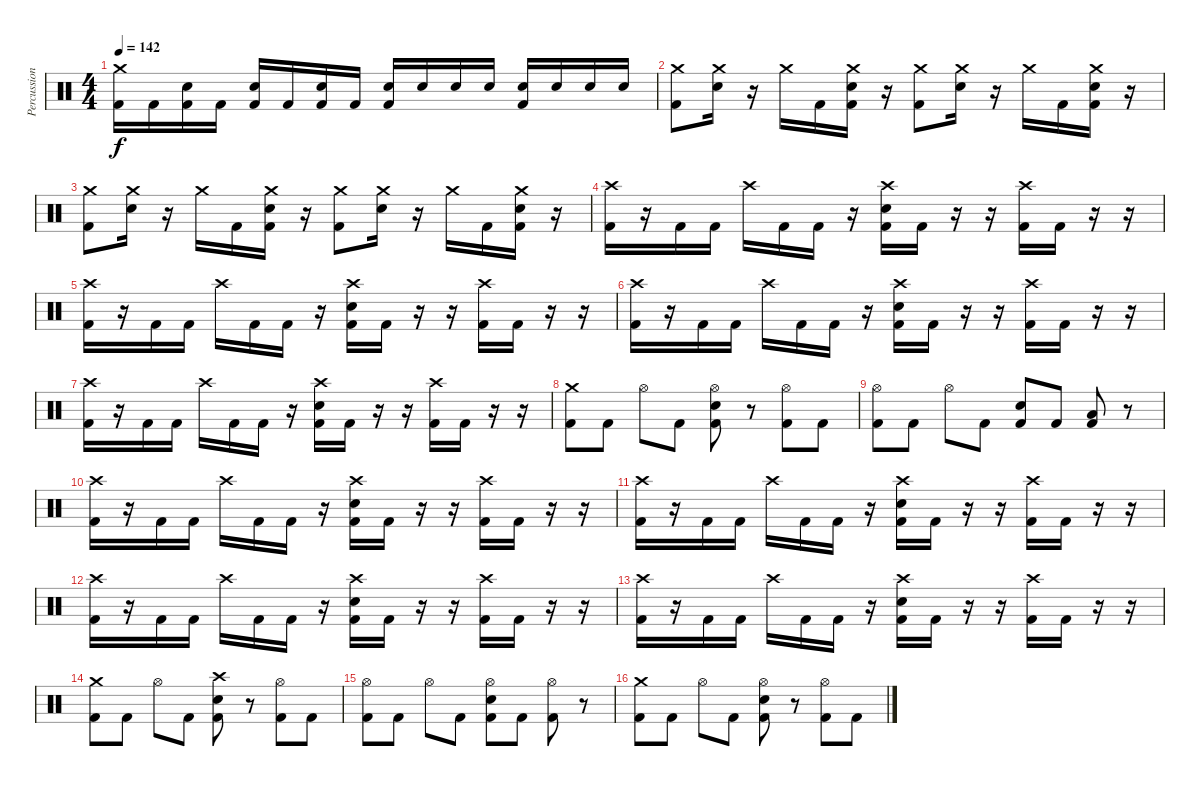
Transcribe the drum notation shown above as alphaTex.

\track ("Percussion" "Percussion") {instrument percussion}
\staff {score}
\articulation defaults
\ts (4 4)
\tempo 142
\clef neutral
\ks c
("Crash medium (hit)" "Kick (hit) 2").16{dy f} "Kick (hit) 2".16 ("Snare (hit) 2" "Kick (hit) 2").16 "Kick (hit) 2".16 ("Snare (hit) 2" "Kick (hit) 2").16 "Kick (hit) 2".16 ("Snare (hit) 2" "Kick (hit) 2").16 "Kick (hit) 2".16 ("Snare (hit) 2" "Kick (hit) 2").16 "Snare (hit) 2".16 "Snare (hit) 2".16 "Snare (hit) 2".16 ("Snare (hit) 2" "Kick (hit) 2").16 "Snare (hit) 2".16 "Snare (hit) 2".16 "Snare (hit) 2".16 |
("Crash medium (hit)" "Kick (hit) 2").8 ("Crash medium (hit)" "Snare (hit) 2").16 r.16 "Crash medium (hit)".16 "Kick (hit) 2".16 ("Crash medium (hit)" "Snare (hit) 2" "Kick (hit) 2").16 r.16 ("Crash medium (hit)" "Kick (hit) 2").8 ("Crash medium (hit)" "Snare (hit) 2").16 r.16 "Crash medium (hit)".16 "Kick (hit) 2".16 ("Crash medium (hit)" "Snare (hit) 2" "Kick (hit) 2").16 r.16 |
("Crash medium (hit)" "Kick (hit) 2").8 ("Crash medium (hit)" "Snare (hit) 2").16 r.16 "Crash medium (hit)".16 "Kick (hit) 2".16 ("Crash medium (hit)" "Snare (hit) 2" "Kick (hit) 2").16 r.16 ("Crash medium (hit)" "Kick (hit) 2").8 ("Crash medium (hit)" "Snare (hit) 2").16 r.16 "Crash medium (hit)".16 "Kick (hit) 2".16 ("Crash medium (hit)" "Snare (hit) 2" "Kick (hit) 2").16 r.16 |
("Crash high (hit)" "Kick (hit) 2").16 r.16 "Kick (hit) 2".16 "Kick (hit) 2".16 "Crash high (hit)".16 "Kick (hit) 2".16 "Kick (hit) 2".16 r.16 ("Crash high (hit)" "Snare (hit) 2" "Kick (hit) 2").16 "Kick (hit) 2".16 r.16 r.16 ("Crash high (hit)" "Kick (hit) 2").16 "Kick (hit) 2".16 r.16 r.16 |
("Crash high (hit)" "Kick (hit) 2").16 r.16 "Kick (hit) 2".16 "Kick (hit) 2".16 "Crash high (hit)".16 "Kick (hit) 2".16 "Kick (hit) 2".16 r.16 ("Crash high (hit)" "Snare (hit) 2" "Kick (hit) 2").16 "Kick (hit) 2".16 r.16 r.16 ("Crash high (hit)" "Kick (hit) 2").16 "Kick (hit) 2".16 r.16 r.16 |
("Crash high (hit)" "Kick (hit) 2").16 r.16 "Kick (hit) 2".16 "Kick (hit) 2".16 "Crash high (hit)".16 "Kick (hit) 2".16 "Kick (hit) 2".16 r.16 ("Crash high (hit)" "Snare (hit) 2" "Kick (hit) 2").16 "Kick (hit) 2".16 r.16 r.16 ("Crash high (hit)" "Kick (hit) 2").16 "Kick (hit) 2".16 r.16 r.16 |
("Crash high (hit)" "Kick (hit) 2").16 r.16 "Kick (hit) 2".16 "Kick (hit) 2".16 "Crash high (hit)".16 "Kick (hit) 2".16 "Kick (hit) 2".16 r.16 ("Crash high (hit)" "Snare (hit) 2" "Kick (hit) 2").16 "Kick (hit) 2".16 r.16 r.16 ("Crash high (hit)" "Kick (hit) 2").16 "Kick (hit) 2".16 r.16 r.16 |
("Crash medium (hit)" "Kick (hit) 2").8 "Kick (hit) 2".8 "Hi-Hat (open)".8 "Kick (hit) 2".8 ("Hi-Hat (open)" "Snare (hit) 2" "Kick (hit) 2").8 r.8 ("Hi-Hat (open)" "Kick (hit) 2").8 "Kick (hit) 2".8 |
("Hi-Hat (open)" "Kick (hit) 2").8 "Kick (hit) 2".8 "Hi-Hat (open)".8 "Kick (hit) 2".8 ("Snare (hit) 2" "Kick (hit) 2").8 "Kick (hit) 2".8 ("Low Floor Tom (hit)" "Kick (hit) 2").8 r.8 |
("Crash high (hit)" "Kick (hit) 2").16 r.16 "Kick (hit) 2".16 "Kick (hit) 2".16 "Crash high (hit)".16 "Kick (hit) 2".16 "Kick (hit) 2".16 r.16 ("Crash high (hit)" "Snare (hit) 2" "Kick (hit) 2").16 "Kick (hit) 2".16 r.16 r.16 ("Crash high (hit)" "Kick (hit) 2").16 "Kick (hit) 2".16 r.16 r.16 |
("Crash high (hit)" "Kick (hit) 2").16 r.16 "Kick (hit) 2".16 "Kick (hit) 2".16 "Crash high (hit)".16 "Kick (hit) 2".16 "Kick (hit) 2".16 r.16 ("Crash high (hit)" "Snare (hit) 2" "Kick (hit) 2").16 "Kick (hit) 2".16 r.16 r.16 ("Crash high (hit)" "Kick (hit) 2").16 "Kick (hit) 2".16 r.16 r.16 |
("Crash high (hit)" "Kick (hit) 2").16 r.16 "Kick (hit) 2".16 "Kick (hit) 2".16 "Crash high (hit)".16 "Kick (hit) 2".16 "Kick (hit) 2".16 r.16 ("Crash high (hit)" "Snare (hit) 2" "Kick (hit) 2").16 "Kick (hit) 2".16 r.16 r.16 ("Crash high (hit)" "Kick (hit) 2").16 "Kick (hit) 2".16 r.16 r.16 |
("Crash high (hit)" "Kick (hit) 2").16 r.16 "Kick (hit) 2".16 "Kick (hit) 2".16 "Crash high (hit)".16 "Kick (hit) 2".16 "Kick (hit) 2".16 r.16 ("Crash high (hit)" "Snare (hit) 2" "Kick (hit) 2").16 "Kick (hit) 2".16 r.16 r.16 ("Crash high (hit)" "Kick (hit) 2").16 "Kick (hit) 2".16 r.16 r.16 |
("Crash medium (hit)" "Kick (hit) 2").8 "Kick (hit) 2".8 "Hi-Hat (open)".8 "Kick (hit) 2".8 ("Crash high (hit)" "Snare (hit) 2" "Kick (hit) 2").8 r.8 ("Hi-Hat (open)" "Kick (hit) 2").8 "Kick (hit) 2".8 |
("Hi-Hat (open)" "Kick (hit) 2").8 "Kick (hit) 2".8 "Hi-Hat (open)".8 "Kick (hit) 2".8 ("Hi-Hat (open)" "Snare (hit) 2" "Kick (hit) 2").8 "Kick (hit) 2".8 ("Hi-Hat (open)" "Kick (hit) 2").8 r.8 |
("Crash medium (hit)" "Kick (hit) 2").8 "Kick (hit) 2".8 "Hi-Hat (open)".8 "Kick (hit) 2".8 ("Hi-Hat (open)" "Snare (hit) 2" "Kick (hit) 2").8 r.8 ("Hi-Hat (open)" "Kick (hit) 2").8 "Kick (hit) 2".8
